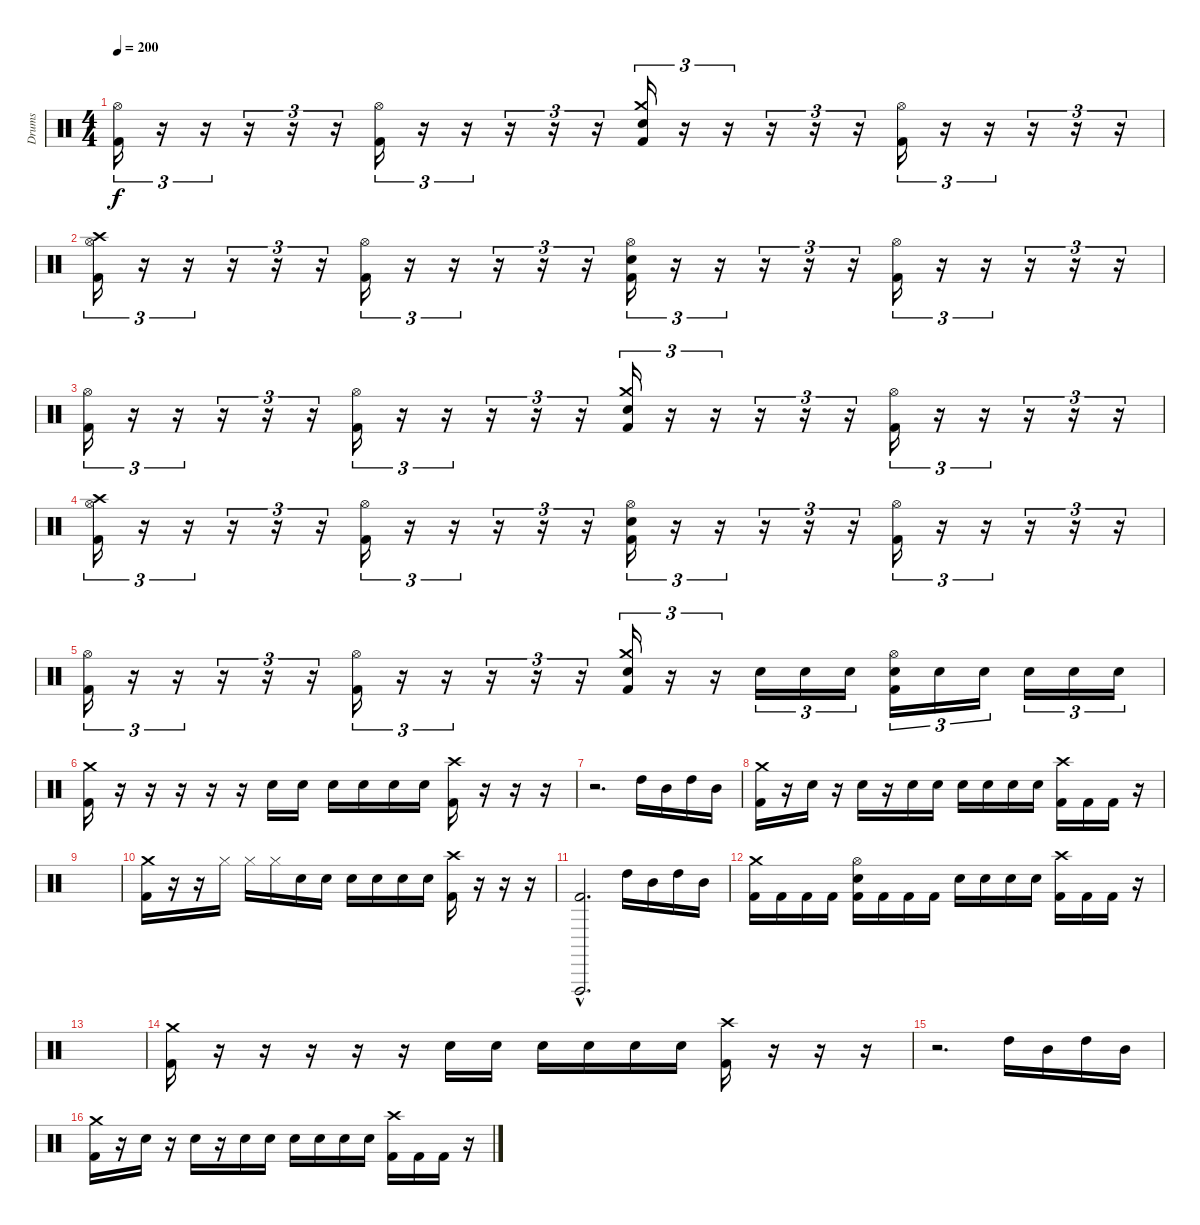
\track ("Drums" "Drums") {instrument percussion}
\staff {score}
\articulation defaults
\ts (4 4)
\tempo 200
\clef neutral
\ks c
("Hi-Hat (open)" "Kick (hit) 2").16{tu (3 2) dy f} r.16{tu (3 2)} r.16{tu (3 2)} r.16{tu (3 2)} r.16{tu (3 2)} r.16{tu (3 2)} ("Hi-Hat (open)" "Kick (hit) 2").16{tu (3 2)} r.16{tu (3 2)} r.16{tu (3 2)} r.16{tu (3 2)} r.16{tu (3 2)} r.16{tu (3 2)} ("Crash medium (hit)" "Electric Snare (hit)" "Kick (hit) 2").16{tu (3 2)} r.16{tu (3 2)} r.16{tu (3 2)} r.16{tu (3 2)} r.16{tu (3 2)} r.16{tu (3 2)} ("Hi-Hat (open)" "Kick (hit) 2").16{tu (3 2)} r.16{tu (3 2)} r.16{tu (3 2)} r.16{tu (3 2)} r.16{tu (3 2)} r.16{tu (3 2)} |
("Crash high (hit)" "Hi-Hat (open)" "Kick (hit) 2").16{tu (3 2)} r.16{tu (3 2)} r.16{tu (3 2)} r.16{tu (3 2)} r.16{tu (3 2)} r.16{tu (3 2)} ("Hi-Hat (open)" "Kick (hit) 2").16{tu (3 2)} r.16{tu (3 2)} r.16{tu (3 2)} r.16{tu (3 2)} r.16{tu (3 2)} r.16{tu (3 2)} ("Hi-Hat (open)" "Electric Snare (hit)" "Kick (hit) 2").16{tu (3 2)} r.16{tu (3 2)} r.16{tu (3 2)} r.16{tu (3 2)} r.16{tu (3 2)} r.16{tu (3 2)} ("Hi-Hat (open)" "Kick (hit) 2").16{tu (3 2)} r.16{tu (3 2)} r.16{tu (3 2)} r.16{tu (3 2)} r.16{tu (3 2)} r.16{tu (3 2)} |
("Hi-Hat (open)" "Kick (hit) 2").16{tu (3 2)} r.16{tu (3 2)} r.16{tu (3 2)} r.16{tu (3 2)} r.16{tu (3 2)} r.16{tu (3 2)} ("Hi-Hat (open)" "Kick (hit) 2").16{tu (3 2)} r.16{tu (3 2)} r.16{tu (3 2)} r.16{tu (3 2)} r.16{tu (3 2)} r.16{tu (3 2)} ("Crash medium (hit)" "Electric Snare (hit)" "Kick (hit) 2").16{tu (3 2)} r.16{tu (3 2)} r.16{tu (3 2)} r.16{tu (3 2)} r.16{tu (3 2)} r.16{tu (3 2)} ("Hi-Hat (open)" "Kick (hit) 2").16{tu (3 2)} r.16{tu (3 2)} r.16{tu (3 2)} r.16{tu (3 2)} r.16{tu (3 2)} r.16{tu (3 2)} |
("Crash high (hit)" "Hi-Hat (open)" "Kick (hit) 2").16{tu (3 2)} r.16{tu (3 2)} r.16{tu (3 2)} r.16{tu (3 2)} r.16{tu (3 2)} r.16{tu (3 2)} ("Hi-Hat (open)" "Kick (hit) 2").16{tu (3 2)} r.16{tu (3 2)} r.16{tu (3 2)} r.16{tu (3 2)} r.16{tu (3 2)} r.16{tu (3 2)} ("Hi-Hat (open)" "Electric Snare (hit)" "Kick (hit) 2").16{tu (3 2)} r.16{tu (3 2)} r.16{tu (3 2)} r.16{tu (3 2)} r.16{tu (3 2)} r.16{tu (3 2)} ("Hi-Hat (open)" "Kick (hit) 2").16{tu (3 2)} r.16{tu (3 2)} r.16{tu (3 2)} r.16{tu (3 2)} r.16{tu (3 2)} r.16{tu (3 2)} |
("Hi-Hat (open)" "Kick (hit) 2").16{tu (3 2)} r.16{tu (3 2)} r.16{tu (3 2)} r.16{tu (3 2)} r.16{tu (3 2)} r.16{tu (3 2)} ("Hi-Hat (open)" "Kick (hit) 2").16{tu (3 2)} r.16{tu (3 2)} r.16{tu (3 2)} r.16{tu (3 2)} r.16{tu (3 2)} r.16{tu (3 2)} ("Crash medium (hit)" "Electric Snare (hit)" "Kick (hit) 2").16{tu (3 2)} r.16{tu (3 2)} r.16{tu (3 2)} "Electric Snare (hit)".16{tu (3 2)} "Electric Snare (hit)".16{tu (3 2)} "Electric Snare (hit)".16{tu (3 2)} ("Hi-Hat (open)" "Electric Snare (hit)" "Kick (hit) 2").16{tu (3 2)} "Electric Snare (hit)".16{tu (3 2)} "Electric Snare (hit)".16{tu (3 2)} "Electric Snare (hit)".16{tu (3 2)} "Electric Snare (hit)".16{tu (3 2)} "Electric Snare (hit)".16{tu (3 2)} |
("Crash medium (hit)" "Kick (hit) 2").16 r.16 r.16 r.16 r.16 r.16 "Electric Snare (hit)".16 "Electric Snare (hit)".16 "Electric Snare (hit)".16 "Electric Snare (hit)".16 "Electric Snare (hit)".16 "Electric Snare (hit)".16 ("Crash high (hit)" "Kick (hit) 2").16 r.16 r.16 r.16 |
r.2{d} "High Tom (hit)".16 "Mid Tom (hit)".16 "High Tom (hit)".16 "Mid Tom (hit)".16 |
("Crash medium (hit)" "Kick (hit) 2").16 r.16 "Electric Snare (hit)".16 r.16 "Electric Snare (hit)".16 r.16 "Electric Snare (hit)".16 "Electric Snare (hit)".16 "Electric Snare (hit)".16 "Electric Snare (hit)".16 "Electric Snare (hit)".16 "Electric Snare (hit)".16 ("Crash high (hit)" "Kick (hit) 2").16 "Kick (hit) 2".16 "Kick (hit) 2".16 r.16 |
|
("Crash medium (hit)" "Kick (hit) 2").16 r.16 r.16 "Hi-Hat (closed)".16 "Hi-Hat (closed)".16 "Hi-Hat (closed)".16 "Electric Snare (hit)".16 "Electric Snare (hit)".16 "Electric Snare (hit)".16 "Electric Snare (hit)".16 "Electric Snare (hit)".16 "Electric Snare (hit)".16 ("Crash high (hit)" "Kick (hit) 2").16 r.16 r.16 r.16 |
("Vibraslap (hit)"{hac} "Kick (hit) 2"{hac}).2{d} "High Tom (hit)".16 "Mid Tom (hit)".16 "High Tom (hit)".16 "Mid Tom (hit)".16 |
("Crash medium (hit)" "Kick (hit) 2").16 "Kick (hit) 2".16 "Kick (hit) 2".16 "Kick (hit) 2".16 ("Hi-Hat (open)" "Electric Snare (hit)" "Kick (hit) 2").16 "Kick (hit) 2".16 "Kick (hit) 2".16 "Kick (hit) 2".16 "Electric Snare (hit)".16 "Electric Snare (hit)".16 "Electric Snare (hit)".16 "Electric Snare (hit)".16 ("Crash high (hit)" "Kick (hit) 2").16 "Kick (hit) 2".16 "Kick (hit) 2".16 r.16 |
|
("Crash medium (hit)" "Kick (hit) 2").16 r.16 r.16 r.16 r.16 r.16 "Electric Snare (hit)".16 "Electric Snare (hit)".16 "Electric Snare (hit)".16 "Electric Snare (hit)".16 "Electric Snare (hit)".16 "Electric Snare (hit)".16 ("Crash high (hit)" "Kick (hit) 2").16 r.16 r.16 r.16 |
r.2{d} "High Tom (hit)".16 "Mid Tom (hit)".16 "High Tom (hit)".16 "Mid Tom (hit)".16 |
("Crash medium (hit)" "Kick (hit) 2").16 r.16 "Electric Snare (hit)".16 r.16 "Electric Snare (hit)".16 r.16 "Electric Snare (hit)".16 "Electric Snare (hit)".16 "Electric Snare (hit)".16 "Electric Snare (hit)".16 "Electric Snare (hit)".16 "Electric Snare (hit)".16 ("Crash high (hit)" "Kick (hit) 2").16 "Kick (hit) 2".16 "Kick (hit) 2".16 r.16
